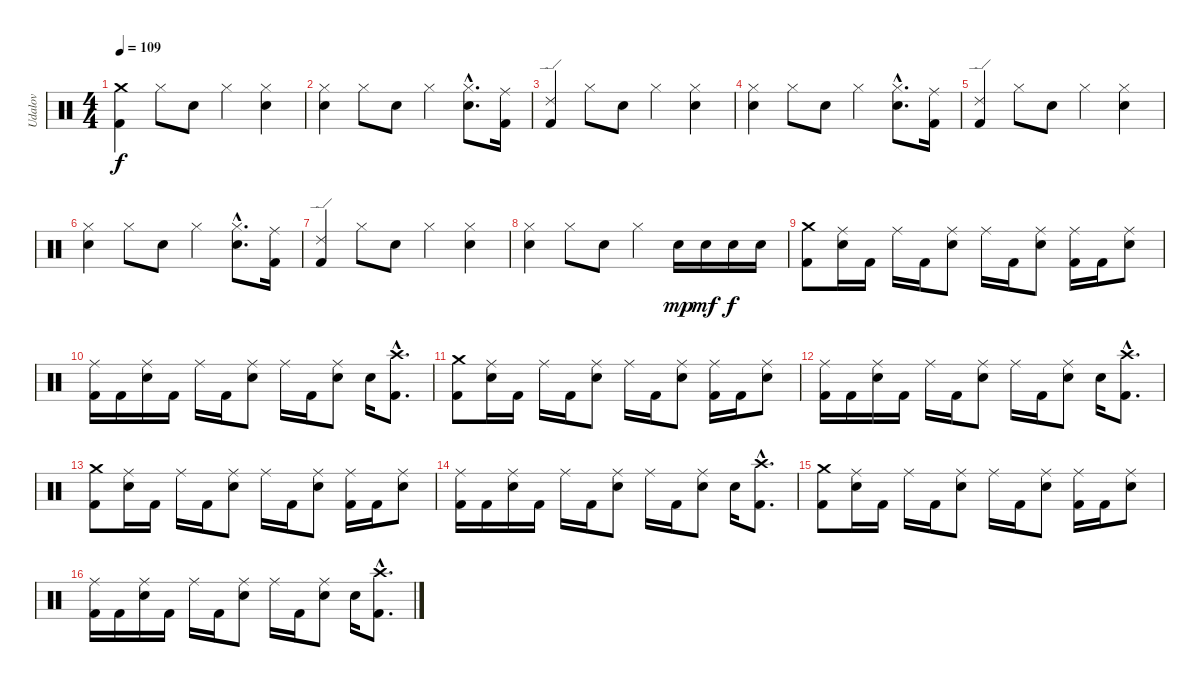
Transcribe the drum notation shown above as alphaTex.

\track ("Udalov" "Udalov") {instrument percussion}
\staff {score}
\articulation defaults
\ts (4 4)
\tempo 109
\clef neutral
\ks c
("Kick (hit) 2" "Crash medium (hit)").4{dy f} "Hi-Hat (closed)".8 "Snare (hit) 2".8 "Hi-Hat (closed)".4 ("Snare (hit) 2" "Hi-Hat (closed)").4 |
("Snare (hit) 2" "Hi-Hat (closed)").4 "Hi-Hat (closed)".8 "Snare (hit) 2".8 "Hi-Hat (closed)".4 ("Snare (hit) 2"{hac} "Hi-Hat (closed)"{hac}).8{d} ("Ride (middle)" "Kick (hit) 2").16 |
("Kick (hit) 2" "Ride (edge) 2").4 "Hi-Hat (closed)".8 "Snare (hit) 2".8 "Hi-Hat (closed)".4 ("Snare (hit) 2" "Hi-Hat (closed)").4 |
("Snare (hit) 2" "Hi-Hat (closed)").4 "Hi-Hat (closed)".8 "Snare (hit) 2".8 "Hi-Hat (closed)".4 ("Snare (hit) 2"{hac} "Hi-Hat (closed)"{hac}).8{d} ("Ride (middle)" "Kick (hit) 2").16 |
("Kick (hit) 2" "Ride (edge) 2").4 "Hi-Hat (closed)".8 "Snare (hit) 2".8 "Hi-Hat (closed)".4 ("Snare (hit) 2" "Hi-Hat (closed)").4 |
("Snare (hit) 2" "Hi-Hat (closed)").4 "Hi-Hat (closed)".8 "Snare (hit) 2".8 "Hi-Hat (closed)".4 ("Snare (hit) 2"{hac} "Hi-Hat (closed)"{hac}).8{d} ("Ride (middle)" "Kick (hit) 2").16 |
("Kick (hit) 2" "Ride (edge) 2").4 "Hi-Hat (closed)".8 "Snare (hit) 2".8 "Hi-Hat (closed)".4 ("Snare (hit) 2" "Hi-Hat (closed)").4 |
("Snare (hit) 2" "Hi-Hat (closed)").4 "Hi-Hat (closed)".8 "Snare (hit) 2".8 "Hi-Hat (closed)".4 "Snare (hit) 2".16{dy mp} "Snare (hit) 2".16{dy mf} "Snare (hit) 2".16{dy f} "Snare (hit) 2".16 |
("Kick (hit) 2" "Crash medium (hit)").8 ("Ride (middle)" "Snare (hit) 2").16 "Kick (hit) 2".16 "Ride (middle)".16 "Kick (hit) 2".16 ("Ride (middle)" "Snare (hit) 2").8 "Ride (middle)".16 "Kick (hit) 2".16 ("Ride (middle)" "Snare (hit) 2").8 ("Ride (middle)" "Kick (hit) 2").16 "Kick (hit) 2".16 ("Ride (middle)" "Snare (hit) 2").8 |
("Kick (hit) 2" "Ride (middle)").16 "Kick (hit) 2".16 ("Ride (middle)" "Snare (hit) 2").16 "Kick (hit) 2".16 "Ride (middle)".16 "Kick (hit) 2".16 ("Ride (middle)" "Snare (hit) 2").8 "Ride (middle)".16 "Kick (hit) 2".16 ("Ride (middle)" "Snare (hit) 2").8 "Snare (hit) 2".16 ("Kick (hit) 2"{hac} "Crash high (hit)"{hac}).8{d} |
("Kick (hit) 2" "Crash medium (hit)").8 ("Ride (middle)" "Snare (hit) 2").16 "Kick (hit) 2".16 "Ride (middle)".16 "Kick (hit) 2".16 ("Ride (middle)" "Snare (hit) 2").8 "Ride (middle)".16 "Kick (hit) 2".16 ("Ride (middle)" "Snare (hit) 2").8 ("Ride (middle)" "Kick (hit) 2").16 "Kick (hit) 2".16 ("Ride (middle)" "Snare (hit) 2").8 |
("Kick (hit) 2" "Ride (middle)").16 "Kick (hit) 2".16 ("Ride (middle)" "Snare (hit) 2").16 "Kick (hit) 2".16 "Ride (middle)".16 "Kick (hit) 2".16 ("Ride (middle)" "Snare (hit) 2").8 "Ride (middle)".16 "Kick (hit) 2".16 ("Ride (middle)" "Snare (hit) 2").8 "Snare (hit) 2".16 ("Kick (hit) 2"{hac} "Crash high (hit)"{hac}).8{d} |
("Kick (hit) 2" "Crash medium (hit)").8 ("Ride (middle)" "Snare (hit) 2").16 "Kick (hit) 2".16 "Ride (middle)".16 "Kick (hit) 2".16 ("Ride (middle)" "Snare (hit) 2").8 "Ride (middle)".16 "Kick (hit) 2".16 ("Ride (middle)" "Snare (hit) 2").8 ("Ride (middle)" "Kick (hit) 2").16 "Kick (hit) 2".16 ("Ride (middle)" "Snare (hit) 2").8 |
("Kick (hit) 2" "Ride (middle)").16 "Kick (hit) 2".16 ("Ride (middle)" "Snare (hit) 2").16 "Kick (hit) 2".16 "Ride (middle)".16 "Kick (hit) 2".16 ("Ride (middle)" "Snare (hit) 2").8 "Ride (middle)".16 "Kick (hit) 2".16 ("Ride (middle)" "Snare (hit) 2").8 "Snare (hit) 2".16 ("Kick (hit) 2"{hac} "Crash high (hit)"{hac}).8{d} |
("Kick (hit) 2" "Crash medium (hit)").8 ("Ride (middle)" "Snare (hit) 2").16 "Kick (hit) 2".16 "Ride (middle)".16 "Kick (hit) 2".16 ("Ride (middle)" "Snare (hit) 2").8 "Ride (middle)".16 "Kick (hit) 2".16 ("Ride (middle)" "Snare (hit) 2").8 ("Ride (middle)" "Kick (hit) 2").16 "Kick (hit) 2".16 ("Ride (middle)" "Snare (hit) 2").8 |
("Kick (hit) 2" "Ride (middle)").16 "Kick (hit) 2".16 ("Ride (middle)" "Snare (hit) 2").16 "Kick (hit) 2".16 "Ride (middle)".16 "Kick (hit) 2".16 ("Ride (middle)" "Snare (hit) 2").8 "Ride (middle)".16 "Kick (hit) 2".16 ("Ride (middle)" "Snare (hit) 2").8 "Snare (hit) 2".16 ("Kick (hit) 2"{hac} "Crash high (hit)"{hac}).8{d}
